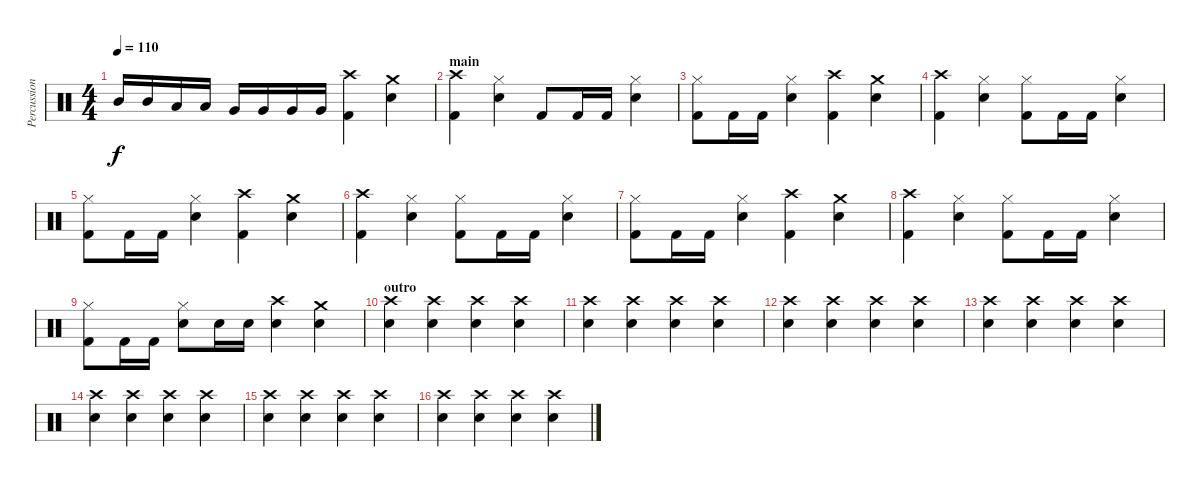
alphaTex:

\track ("Percussion" "Percussion") {instrument percussion}
\staff {score}
\articulation defaults
\ts (4 4)
\tempo 110
\clef neutral
\ks c "Mid Tom (hit)".16{dy f} "Mid Tom (hit)".16 "Low Tom (hit)".16 "Low Tom (hit)".16 "Very Low Tom (hit)".16 "Very Low Tom (hit)".16 "Very Low Tom (hit)".16 "Very Low Tom (hit)".16
("Crash high (hit)" "Kick (hit) 2").4 ("Crash medium (hit)" "Snare (hit) 2").4 |
\section ("" "main")
("Crash high (hit)" "Kick (hit) 2").4 ("Hi-Hat (closed)" "Snare (hit) 2").4 "Kick (hit) 2".8 "Kick (hit) 2".16 "Kick (hit) 2".16 ("Hi-Hat (closed)" "Snare (hit) 2").4 |
("Hi-Hat (closed)" "Kick (hit) 2").8 "Kick (hit) 2".16 "Kick (hit) 2".16 ("Hi-Hat (closed)" "Snare (hit) 2").4 ("Crash high (hit)" "Kick (hit) 2").4 ("Crash medium (hit)" "Snare (hit) 2").4 |
("Crash high (hit)" "Kick (hit) 2").4 ("Hi-Hat (closed)" "Snare (hit) 2").4 ("Hi-Hat (closed)" "Kick (hit) 2").8 "Kick (hit) 2".16 "Kick (hit) 2".16 ("Hi-Hat (closed)" "Snare (hit) 2").4 |
("Hi-Hat (closed)" "Kick (hit) 2").8 "Kick (hit) 2".16 "Kick (hit) 2".16 ("Hi-Hat (closed)" "Snare (hit) 2").4 ("Crash high (hit)" "Kick (hit) 2").4 ("Crash medium (hit)" "Snare (hit) 2").4 |
("Crash high (hit)" "Kick (hit) 2").4 ("Hi-Hat (closed)" "Snare (hit) 2").4 ("Hi-Hat (closed)" "Kick (hit) 2").8 "Kick (hit) 2".16 "Kick (hit) 2".16 ("Hi-Hat (closed)" "Snare (hit) 2").4 |
("Hi-Hat (closed)" "Kick (hit) 2").8 "Kick (hit) 2".16 "Kick (hit) 2".16 ("Hi-Hat (closed)" "Snare (hit) 2").4 ("Crash high (hit)" "Kick (hit) 2").4 ("Crash medium (hit)" "Snare (hit) 2").4 |
("Crash high (hit)" "Kick (hit) 2").4 ("Hi-Hat (closed)" "Snare (hit) 2").4 ("Hi-Hat (closed)" "Kick (hit) 2").8 "Kick (hit) 2".16 "Kick (hit) 2".16 ("Hi-Hat (closed)" "Snare (hit) 2").4 |
("Hi-Hat (closed)" "Kick (hit) 2").8 "Kick (hit) 2".16 "Kick (hit) 2".16 ("Hi-Hat (closed)" "Snare (hit) 2").8 "Snare (hit) 2".16 "Snare (hit) 2".16 ("Crash high (hit)" "Snare (hit) 2").4 ("Crash medium (hit)" "Snare (hit) 2").4 |
\section ("" "outro")
("Crash high (hit)" "Snare (hit) 2").4{volume 6} ("Crash high (hit)" "Snare (hit) 2").4 ("Crash high (hit)" "Snare (hit) 2").4 ("Crash high (hit)" "Snare (hit) 2").4 |
("Crash high (hit)" "Snare (hit) 2").4 ("Crash high (hit)" "Snare (hit) 2").4 ("Crash high (hit)" "Snare (hit) 2").4 ("Crash high (hit)" "Snare (hit) 2").4 |
("Crash high (hit)" "Snare (hit) 2").4{volume 4} ("Crash high (hit)" "Snare (hit) 2").4 ("Crash high (hit)" "Snare (hit) 2").4 ("Crash high (hit)" "Snare (hit) 2").4 |
("Crash high (hit)" "Snare (hit) 2").4 ("Crash high (hit)" "Snare (hit) 2").4 ("Crash high (hit)" "Snare (hit) 2").4 ("Crash high (hit)" "Snare (hit) 2").4 |
("Crash high (hit)" "Snare (hit) 2").4{volume 3} ("Crash high (hit)" "Snare (hit) 2").4 ("Crash high (hit)" "Snare (hit) 2").4 ("Crash high (hit)" "Snare (hit) 2").4 |
("Crash high (hit)" "Snare (hit) 2").4 ("Crash high (hit)" "Snare (hit) 2").4 ("Crash high (hit)" "Snare (hit) 2").4 ("Crash high (hit)" "Snare (hit) 2").4 |
("Crash high (hit)" "Snare (hit) 2").4{volume 1} ("Crash high (hit)" "Snare (hit) 2").4 ("Crash high (hit)" "Snare (hit) 2").4 ("Crash high (hit)" "Snare (hit) 2").4
